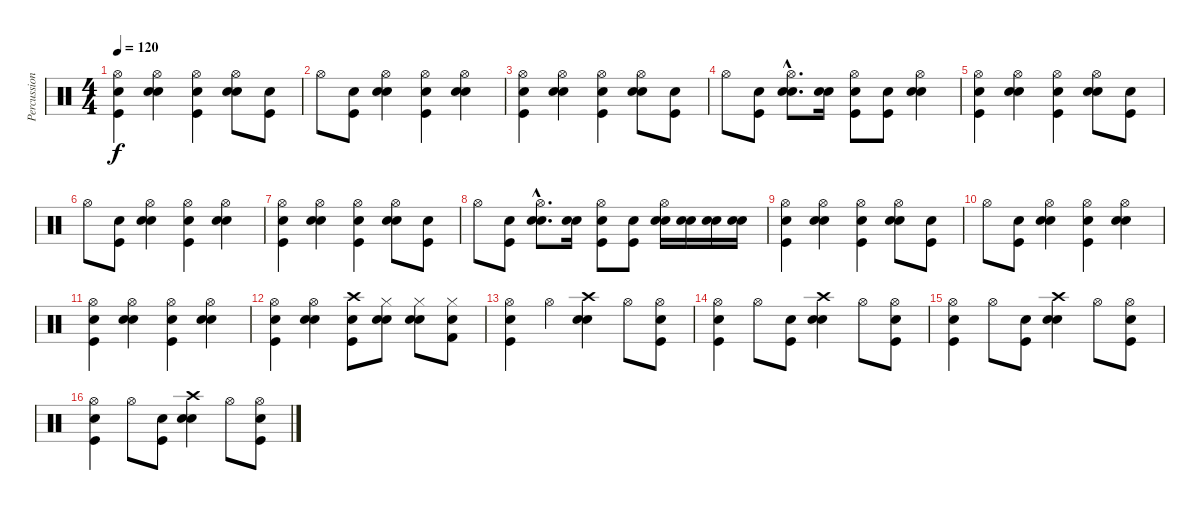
\track ("Percussions" "Percussion") {instrument percussion}
\staff {score}
\articulation defaults
\ts (4 4)
\tempo 120
\clef neutral
\ks c
("Hi-Hat (open)" "Snare (hit) 2" "Kick (hit)").4{dy f} ("Hi-Hat (open)" "Snare (hit) 2" "Electric Snare (hit)").4 ("Hi-Hat (open)" "Snare (hit) 2" "Kick (hit)").4 ("Hi-Hat (open)" "Snare (hit) 2" "Electric Snare (hit)").8 ("Snare (hit) 2" "Kick (hit)").8 |
"Hi-Hat (open)".8 ("Snare (hit) 2" "Kick (hit)").8 ("Hi-Hat (open)" "Snare (hit) 2" "Electric Snare (hit)").4 ("Hi-Hat (open)" "Snare (hit) 2" "Kick (hit)").4 ("Hi-Hat (open)" "Snare (hit) 2" "Electric Snare (hit)").4 |
("Hi-Hat (open)" "Snare (hit) 2" "Kick (hit)").4 ("Hi-Hat (open)" "Snare (hit) 2" "Electric Snare (hit)").4 ("Hi-Hat (open)" "Snare (hit) 2" "Kick (hit)").4 ("Hi-Hat (open)" "Snare (hit) 2" "Electric Snare (hit)").8 ("Snare (hit) 2" "Kick (hit)").8 |
"Hi-Hat (open)".8 ("Snare (hit) 2" "Kick (hit)").8 ("Hi-Hat (open)"{hac} "Snare (hit) 2"{hac} "Electric Snare (hit)"{hac}).8{d} ("Snare (hit) 2" "Electric Snare (hit)").16 ("Hi-Hat (open)" "Snare (hit) 2" "Kick (hit)").8 ("Snare (hit) 2" "Kick (hit)").8 ("Hi-Hat (open)" "Snare (hit) 2" "Electric Snare (hit)").4 |
("Hi-Hat (open)" "Snare (hit) 2" "Kick (hit)").4 ("Hi-Hat (open)" "Snare (hit) 2" "Electric Snare (hit)").4 ("Hi-Hat (open)" "Snare (hit) 2" "Kick (hit)").4 ("Hi-Hat (open)" "Snare (hit) 2" "Electric Snare (hit)").8 ("Snare (hit) 2" "Kick (hit)").8 |
"Hi-Hat (open)".8 ("Snare (hit) 2" "Kick (hit)").8 ("Hi-Hat (open)" "Snare (hit) 2" "Electric Snare (hit)").4 ("Hi-Hat (open)" "Snare (hit) 2" "Kick (hit)").4 ("Hi-Hat (open)" "Snare (hit) 2" "Electric Snare (hit)").4 |
("Hi-Hat (open)" "Snare (hit) 2" "Kick (hit)").4 ("Hi-Hat (open)" "Snare (hit) 2" "Electric Snare (hit)").4 ("Hi-Hat (open)" "Snare (hit) 2" "Kick (hit)").4 ("Hi-Hat (open)" "Snare (hit) 2" "Electric Snare (hit)").8 ("Snare (hit) 2" "Kick (hit)").8 |
"Hi-Hat (open)".8 ("Snare (hit) 2" "Kick (hit)").8 ("Hi-Hat (open)"{hac} "Snare (hit) 2"{hac} "Electric Snare (hit)"{hac}).8{d} ("Snare (hit) 2" "Electric Snare (hit)").16 ("Hi-Hat (open)" "Snare (hit) 2" "Kick (hit)").8 ("Snare (hit) 2" "Kick (hit)").8 ("Hi-Hat (open)" "Snare (hit) 2" "Electric Snare (hit)").16 ("Snare (hit) 2" "Electric Snare (hit)").16 ("Snare (hit) 2" "Electric Snare (hit)").16 ("Snare (hit) 2" "Electric Snare (hit)").16 |
("Hi-Hat (open)" "Snare (hit) 2" "Kick (hit)").4 ("Hi-Hat (open)" "Snare (hit) 2" "Electric Snare (hit)").4 ("Hi-Hat (open)" "Snare (hit) 2" "Kick (hit)").4 ("Hi-Hat (open)" "Snare (hit) 2" "Electric Snare (hit)").8 ("Snare (hit) 2" "Kick (hit)").8 |
"Hi-Hat (open)".8 ("Snare (hit) 2" "Kick (hit)").8 ("Hi-Hat (open)" "Snare (hit) 2" "Electric Snare (hit)").4 ("Hi-Hat (open)" "Snare (hit) 2" "Kick (hit)").4 ("Hi-Hat (open)" "Snare (hit) 2" "Electric Snare (hit)").4 |
("Hi-Hat (open)" "Snare (hit) 2" "Kick (hit)").4 ("Hi-Hat (open)" "Snare (hit) 2" "Electric Snare (hit)").4 ("Hi-Hat (open)" "Snare (hit) 2" "Kick (hit)").4 ("Hi-Hat (open)" "Snare (hit) 2" "Electric Snare (hit)").4 |
("Hi-Hat (open)" "Snare (hit) 2" "Kick (hit)").4 ("Hi-Hat (open)" "Snare (hit) 2" "Electric Snare (hit)").4 ("Crash high (hit)" "Snare (hit) 2" "Kick (hit)").8 ("Hi-Hat (closed)" "Snare (hit) 2" "Electric Snare (hit)").8 ("Hi-Hat (closed)" "Snare (hit) 2" "Snare (hit) 2").8 ("Hi-Hat (closed)" "Snare (hit) 2" "Kick (hit) 2").8 |
("Hi-Hat (open)" "Snare (hit) 2" "Kick (hit)").4 "Hi-Hat (open)".4 ("Crash high (hit)" "Snare (hit) 2" "Electric Snare (hit)").4 "Hi-Hat (open)".8 ("Hi-Hat (open)" "Snare (hit) 2" "Kick (hit)").8 |
("Hi-Hat (open)" "Snare (hit) 2" "Kick (hit)").4 "Hi-Hat (open)".8 ("Snare (hit) 2" "Kick (hit)").8 ("Crash high (hit)" "Snare (hit) 2" "Electric Snare (hit)").4 "Hi-Hat (open)".8 ("Hi-Hat (open)" "Snare (hit) 2" "Kick (hit)").8 |
("Hi-Hat (open)" "Snare (hit) 2" "Kick (hit)").4 "Hi-Hat (open)".8 ("Snare (hit) 2" "Kick (hit)").8 ("Crash high (hit)" "Snare (hit) 2" "Electric Snare (hit)").4 "Hi-Hat (open)".8 ("Hi-Hat (open)" "Snare (hit) 2" "Kick (hit)").8 |
("Hi-Hat (open)" "Snare (hit) 2" "Kick (hit)").4 "Hi-Hat (open)".8 ("Snare (hit) 2" "Kick (hit)").8 ("Crash high (hit)" "Snare (hit) 2" "Electric Snare (hit)").4 "Hi-Hat (open)".8 ("Hi-Hat (open)" "Snare (hit) 2" "Kick (hit)").8
